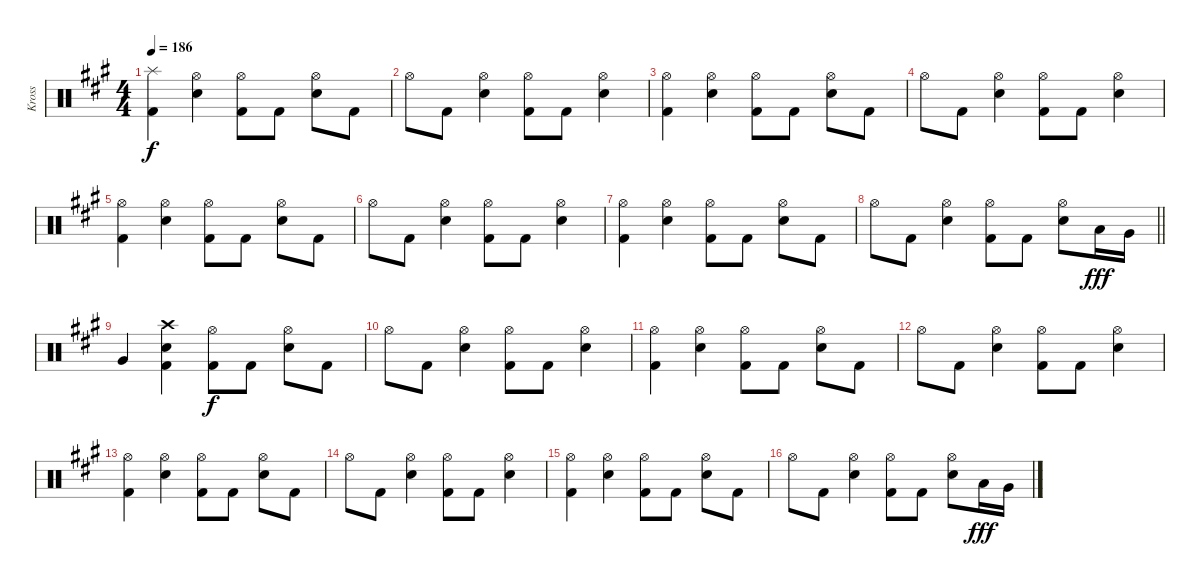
\track ("Kross" "Kross") {instrument percussion}
\staff {score}
\articulation defaults
\ts (4 4)
\tempo 186
\clef neutral
\ks a
("Splash (hit)" "Kick (hit) 2").4{dy f} ("Hi-Hat (open)" "Electric Snare (hit)").4 ("Hi-Hat (open)" "Kick (hit) 2").8 "Kick (hit) 2".8 ("Hi-Hat (open)" "Electric Snare (hit)").8 "Kick (hit) 2".8 |
"Hi-Hat (open)".8 "Kick (hit) 2".8 ("Hi-Hat (open)" "Electric Snare (hit)").4 ("Hi-Hat (open)" "Kick (hit) 2").8 "Kick (hit) 2".8 ("Hi-Hat (open)" "Electric Snare (hit)").4 |
("Hi-Hat (open)" "Kick (hit) 2").4 ("Hi-Hat (open)" "Electric Snare (hit)").4 ("Hi-Hat (open)" "Kick (hit) 2").8 "Kick (hit) 2".8 ("Hi-Hat (open)" "Electric Snare (hit)").8 "Kick (hit) 2".8 |
"Hi-Hat (open)".8 "Kick (hit) 2".8 ("Hi-Hat (open)" "Electric Snare (hit)").4 ("Hi-Hat (open)" "Kick (hit) 2").8 "Kick (hit) 2".8 ("Hi-Hat (open)" "Electric Snare (hit)").4 |
("Hi-Hat (open)" "Kick (hit) 2").4 ("Hi-Hat (open)" "Electric Snare (hit)").4 ("Hi-Hat (open)" "Kick (hit) 2").8 "Kick (hit) 2".8 ("Hi-Hat (open)" "Electric Snare (hit)").8 "Kick (hit) 2".8 |
"Hi-Hat (open)".8 "Kick (hit) 2".8 ("Hi-Hat (open)" "Electric Snare (hit)").4 ("Hi-Hat (open)" "Kick (hit) 2").8 "Kick (hit) 2".8 ("Hi-Hat (open)" "Electric Snare (hit)").4 |
("Hi-Hat (open)" "Kick (hit) 2").4 ("Hi-Hat (open)" "Electric Snare (hit)").4 ("Hi-Hat (open)" "Kick (hit) 2").8 "Kick (hit) 2".8 ("Hi-Hat (open)" "Electric Snare (hit)").8 "Kick (hit) 2".8 |
\barLineRight lightlight "Hi-Hat (open)".8 "Kick (hit) 2".8
("Hi-Hat (open)" "Electric Snare (hit)").4 ("Hi-Hat (open)" "Kick (hit) 2").8 "Kick (hit) 2".8 ("Hi-Hat (open)" "Electric Snare (hit)").8 "Low Floor Tom (hit)".16{dy fff} "Very Low Tom (hit)".16 |
"Very Low Tom (hit)".4 ("Crash high (hit)" "Electric Snare (hit)" "Kick (hit) 2").4 ("Hi-Hat (open)" "Kick (hit) 2").8{dy f} "Kick (hit) 2".8 ("Hi-Hat (open)" "Electric Snare (hit)").8 "Kick (hit) 2".8 |
"Hi-Hat (open)".8 "Kick (hit) 2".8 ("Hi-Hat (open)" "Electric Snare (hit)").4 ("Hi-Hat (open)" "Kick (hit) 2").8 "Kick (hit) 2".8 ("Hi-Hat (open)" "Electric Snare (hit)").4 |
("Hi-Hat (open)" "Kick (hit) 2").4 ("Hi-Hat (open)" "Electric Snare (hit)").4 ("Hi-Hat (open)" "Kick (hit) 2").8 "Kick (hit) 2".8 ("Hi-Hat (open)" "Electric Snare (hit)").8 "Kick (hit) 2".8 |
"Hi-Hat (open)".8 "Kick (hit) 2".8 ("Hi-Hat (open)" "Electric Snare (hit)").4 ("Hi-Hat (open)" "Kick (hit) 2").8 "Kick (hit) 2".8 ("Hi-Hat (open)" "Electric Snare (hit)").4 |
("Hi-Hat (open)" "Kick (hit) 2").4 ("Hi-Hat (open)" "Electric Snare (hit)").4 ("Hi-Hat (open)" "Kick (hit) 2").8 "Kick (hit) 2".8 ("Hi-Hat (open)" "Electric Snare (hit)").8 "Kick (hit) 2".8 |
"Hi-Hat (open)".8 "Kick (hit) 2".8 ("Hi-Hat (open)" "Electric Snare (hit)").4 ("Hi-Hat (open)" "Kick (hit) 2").8 "Kick (hit) 2".8 ("Hi-Hat (open)" "Electric Snare (hit)").4 |
("Hi-Hat (open)" "Kick (hit) 2").4 ("Hi-Hat (open)" "Electric Snare (hit)").4 ("Hi-Hat (open)" "Kick (hit) 2").8 "Kick (hit) 2".8 ("Hi-Hat (open)" "Electric Snare (hit)").8 "Kick (hit) 2".8 |
"Hi-Hat (open)".8 "Kick (hit) 2".8 ("Hi-Hat (open)" "Electric Snare (hit)").4 ("Hi-Hat (open)" "Kick (hit) 2").8 "Kick (hit) 2".8 ("Hi-Hat (open)" "Electric Snare (hit)").8 "Low Floor Tom (hit)".16{dy fff} "Very Low Tom (hit)".16
